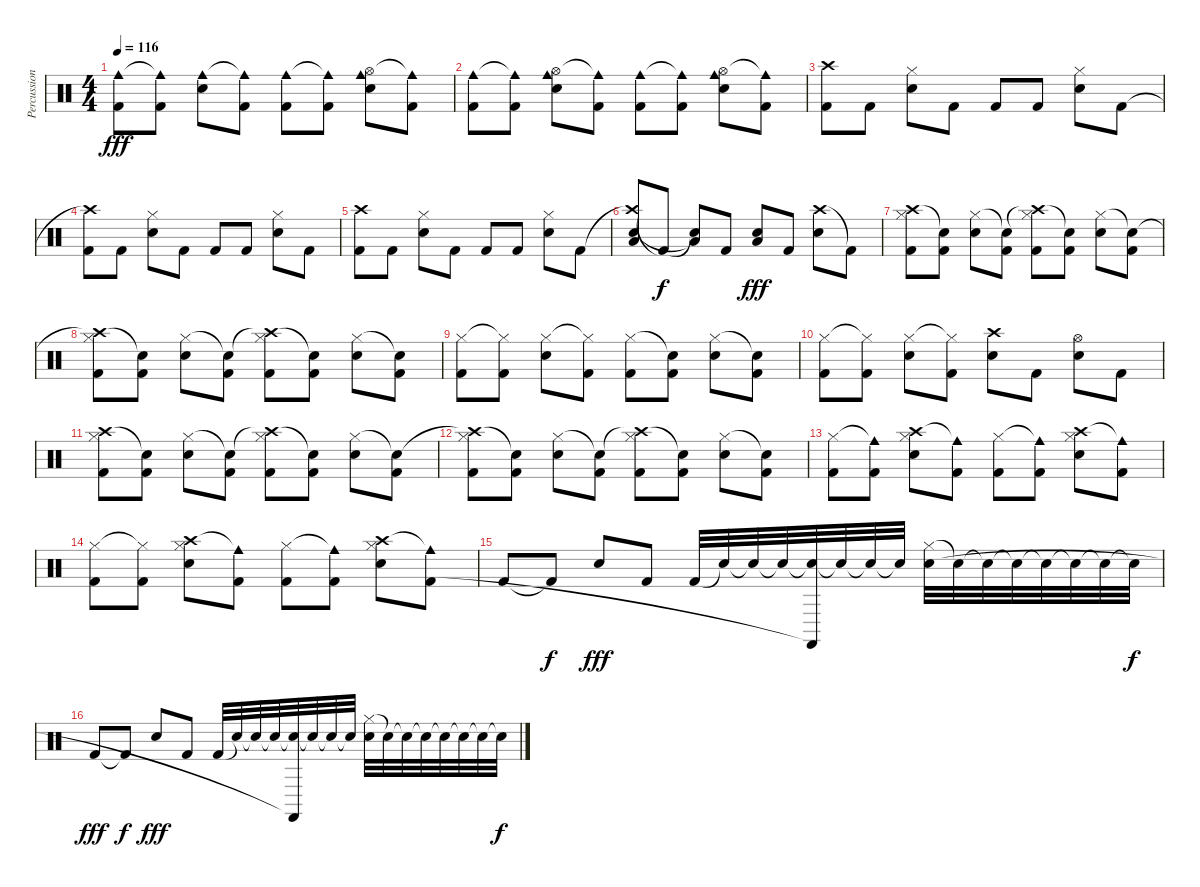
\track ("Percussion" "Percussion") {instrument percussion}
\staff {score}
\articulation defaults
\ts (4 4)
\tempo 116
\clef neutral
\ks c
("Cowbell medium (hit)" "Kick (hit) 2").8{dy fff} ("Cowbell medium (hit)"{t} "Kick (hit) 2").8 ("Cowbell medium (hit)" "Electric Snare (hit)").8 ("Cowbell medium (hit)"{t} "Kick (hit) 2").8 ("Cowbell medium (hit)" "Kick (hit) 2").8 ("Cowbell medium (hit)"{t} "Kick (hit) 2").8 ("Hi-Hat (open)" "Cowbell medium (hit)" "Electric Snare (hit)").8 ("Cowbell medium (hit)"{t} "Kick (hit) 2").8 |
("Cowbell medium (hit)" "Kick (hit) 2").8 ("Cowbell medium (hit)"{t} "Kick (hit) 2").8 ("Hi-Hat (open)" "Cowbell medium (hit)" "Electric Snare (hit)").8 ("Cowbell medium (hit)"{t} "Kick (hit) 2").8 ("Cowbell medium (hit)" "Kick (hit) 2").8 ("Cowbell medium (hit)"{t} "Kick (hit) 2").8 ("Hi-Hat (open)" "Cowbell medium (hit)" "Electric Snare (hit)").8 ("Cowbell medium (hit)"{t} "Kick (hit) 2").8 |
("Crash high (hit)" "Kick (hit) 2").8 "Kick (hit) 2".8 ("Hi-Hat (closed)" "Electric Snare (hit)").8 "Kick (hit) 2".8 "Kick (hit) 2".8 "Kick (hit) 2".8 ("Hi-Hat (closed)" "Electric Snare (hit)").8 "Kick (hit) 2".8 |
("Crash high (hit)"{t} "Kick (hit) 2").8 "Kick (hit) 2".8 ("Hi-Hat (closed)" "Electric Snare (hit)").8 "Kick (hit) 2".8 "Kick (hit) 2".8 "Kick (hit) 2".8 ("Hi-Hat (closed)" "Electric Snare (hit)").8 "Kick (hit) 2".8 |
("Crash high (hit)" "Kick (hit) 2").8 "Kick (hit) 2".8 ("Hi-Hat (closed)" "Electric Snare (hit)").8 "Kick (hit) 2".8 "Kick (hit) 2".8 "Kick (hit) 2".8 ("Hi-Hat (closed)" "Electric Snare (hit)").8 "Kick (hit) 2".8 |
("Crash high (hit)"{t} "Electric Snare (hit)" "Low Floor Tom (hit)").8 "Kick (hit) 2"{t}.8{dy f} ("Electric Snare (hit)"{t} "Low Floor Tom (hit)"{t}).8 "Kick (hit) 2".8 ("Electric Snare (hit)" "Low Floor Tom (hit)").8{dy fff} "Kick (hit) 2".8 ("Crash high (hit)" "Electric Snare (hit)").8 "Kick (hit) 2"{t}.8 |
("Crash high (hit)" "Hi-Hat (closed)" "Kick (hit) 2").8 ("Snare (hit)"{t} "Kick (hit) 2").8 ("Hi-Hat (closed)" "Electric Snare (hit)").8 ("Snare (hit)"{t} "Kick (hit) 2").8 ("Crash high (hit)"{t} "Hi-Hat (closed)" "Kick (hit) 2").8 ("Snare (hit)"{t} "Kick (hit) 2").8 ("Hi-Hat (closed)" "Electric Snare (hit)").8 ("Snare (hit)"{t} "Kick (hit) 2").8 |
("Crash high (hit)"{t} "Hi-Hat (closed)" "Kick (hit) 2").8 ("Snare (hit)"{t} "Kick (hit) 2").8 ("Hi-Hat (closed)" "Electric Snare (hit)").8 ("Snare (hit)"{t} "Kick (hit) 2").8 ("Crash high (hit)"{t} "Hi-Hat (closed)" "Kick (hit) 2").8 ("Snare (hit)"{t} "Kick (hit) 2").8 ("Hi-Hat (closed)" "Electric Snare (hit)").8 ("Snare (hit)"{t} "Kick (hit) 2").8 |
("Hi-Hat (closed)" "Kick (hit) 2").8 ("Hi-Hat (closed)"{t} "Kick (hit) 2").8 ("Hi-Hat (closed)" "Electric Snare (hit)").8 ("Hi-Hat (closed)"{t} "Kick (hit) 2").8 ("Hi-Hat (closed)" "Kick (hit) 2").8 ("Snare (hit)"{t} "Kick (hit) 2").8 ("Hi-Hat (closed)" "Electric Snare (hit)").8 ("Snare (hit)"{t} "Kick (hit) 2").8 |
("Hi-Hat (closed)" "Kick (hit) 2").8 ("Hi-Hat (closed)"{t} "Kick (hit) 2").8 ("Hi-Hat (closed)" "Electric Snare (hit)").8 ("Hi-Hat (closed)"{t} "Kick (hit) 2").8 ("Crash high (hit)" "Electric Snare (hit)").8 "Kick (hit) 2".8 ("Hi-Hat (open)" "Electric Snare (hit)").8 "Kick (hit) 2".8 |
("Crash high (hit)" "Hi-Hat (closed)" "Kick (hit) 2").8 ("Snare (hit)"{t} "Kick (hit) 2").8 ("Hi-Hat (closed)" "Electric Snare (hit)").8 ("Snare (hit)"{t} "Kick (hit) 2").8 ("Crash high (hit)"{t} "Hi-Hat (closed)" "Kick (hit) 2").8 ("Snare (hit)"{t} "Kick (hit) 2").8 ("Hi-Hat (closed)" "Electric Snare (hit)").8 ("Snare (hit)"{t} "Kick (hit) 2").8 |
("Crash high (hit)"{t} "Hi-Hat (closed)" "Kick (hit) 2").8 ("Snare (hit)"{t} "Kick (hit) 2").8 ("Hi-Hat (closed)" "Electric Snare (hit)").8 ("Snare (hit)"{t} "Kick (hit) 2").8 ("Crash high (hit)"{t} "Hi-Hat (closed)" "Kick (hit) 2").8 ("Snare (hit)"{t} "Kick (hit) 2").8 ("Hi-Hat (closed)" "Electric Snare (hit)").8 ("Snare (hit)"{t} "Kick (hit) 2").8 |
("Hi-Hat (closed)" "Kick (hit) 2").8 ("Cowbell medium (hit)"{t} "Kick (hit) 2").8 ("Crash high (hit)" "Hi-Hat (closed)" "Electric Snare (hit)").8 ("Cowbell medium (hit)"{t} "Kick (hit) 2").8 ("Hi-Hat (closed)" "Kick (hit) 2").8 ("Cowbell medium (hit)"{t} "Kick (hit) 2").8 ("Crash high (hit)" "Hi-Hat (closed)" "Electric Snare (hit)").8 ("Cowbell medium (hit)"{t} "Kick (hit) 2").8 |
("Hi-Hat (closed)" "Kick (hit) 2").8 ("Hi-Hat (closed)"{t} "Kick (hit) 2").8 ("Crash high (hit)" "Hi-Hat (closed)" "Electric Snare (hit)").8 ("Cowbell medium (hit)"{t} "Kick (hit) 2").8 ("Hi-Hat (closed)" "Kick (hit) 2").8 ("Cowbell medium (hit)"{t} "Kick (hit) 2").8 ("Crash high (hit)" "Hi-Hat (closed)" "Electric Snare (hit)").8 ("Cowbell medium (hit)"{t} "Kick (hit) 2").8 |
"Kick (hit) 2".8 "Kick (hit) 2"{t}.8{dy f} "Electric Snare (hit)".8{dy fff} "Kick (hit) 2".8 "Kick (hit) 2".32 "Snare (hit)"{t}.32 "Snare (hit)"{t}.32 "Snare (hit)"{t}.32 ("Snare (hit)"{t} "Castanets (hit)"{t}).32 "Snare (hit)"{t}.32 "Snare (hit)"{t}.32 "Snare (hit)"{t}.32 ("Hi-Hat (closed)" "Electric Snare (hit)").32 "Snare (hit)"{t}.32 "Snare (hit)"{t}.32 "Snare (hit)"{t}.32 "Snare (hit)"{t}.32 "Snare (hit)"{t}.32 "Snare (hit)"{t}.32 "Snare (hit)"{t}.32{dy f} |
"Kick (hit) 2".8{dy fff} "Kick (hit) 2"{t}.8{dy f} "Electric Snare (hit)".8{dy fff} "Kick (hit) 2".8 "Kick (hit) 2".32 "Snare (hit)"{t}.32 "Snare (hit)"{t}.32 "Snare (hit)"{t}.32 ("Snare (hit)"{t} "Castanets (hit)"{t}).32 "Snare (hit)"{t}.32 "Snare (hit)"{t}.32 "Snare (hit)"{t}.32 ("Hi-Hat (closed)" "Electric Snare (hit)").32 "Snare (hit)"{t}.32 "Snare (hit)"{t}.32 "Snare (hit)"{t}.32 "Snare (hit)"{t}.32 "Snare (hit)"{t}.32 "Snare (hit)"{t}.32 "Snare (hit)"{t}.32{dy f}
